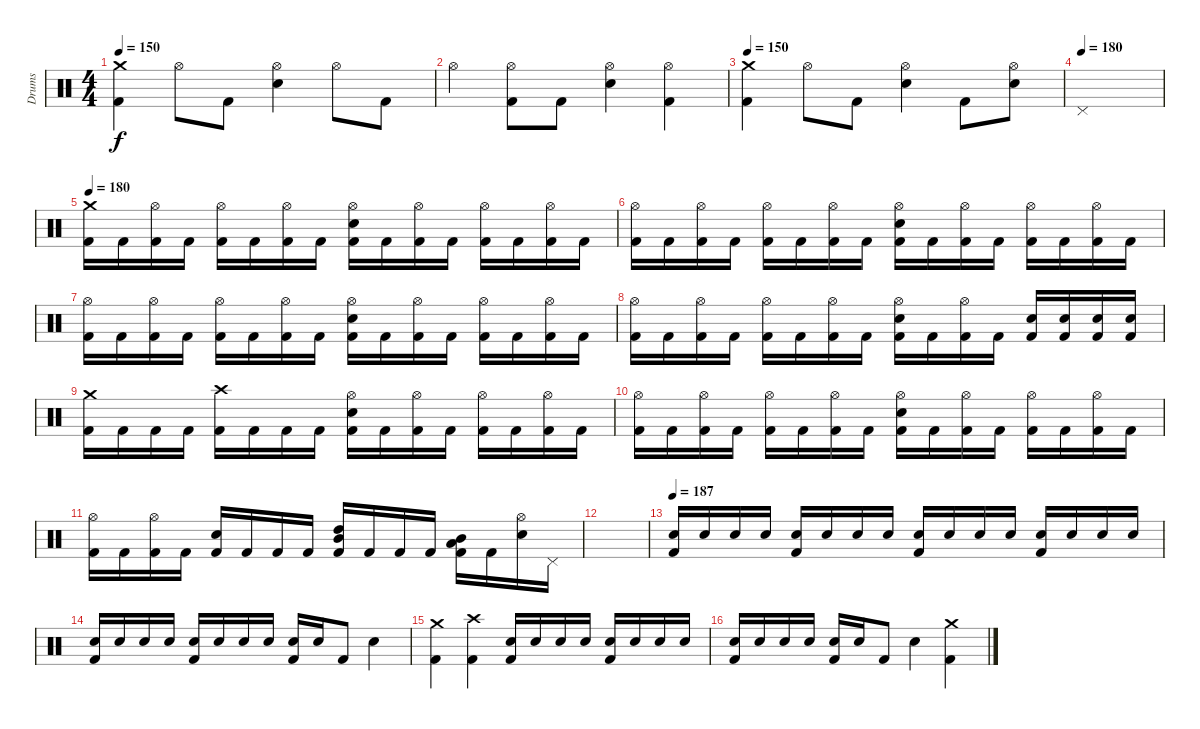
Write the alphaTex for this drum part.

\track ("Drums" "Drums") {instrument percussion}
\staff {score}
\articulation defaults
\ts (4 4)
\tempo 150
\clef neutral
\ks c
("Crash medium (hit)" "Kick (hit) 2").4{dy f} "Hi-Hat (open)".8 "Kick (hit) 2".8 ("Hi-Hat (open)" "Electric Snare (hit)").4 "Hi-Hat (open)".8 "Kick (hit) 2".8 |
"Hi-Hat (open)".4 ("Hi-Hat (open)" "Kick (hit) 2").8 "Kick (hit) 2".8 ("Hi-Hat (open)" "Electric Snare (hit)").4 ("Hi-Hat (open)" "Kick (hit) 2").4 |
\tempo 150
("Crash medium (hit)" "Kick (hit) 2").4 "Hi-Hat (open)".8 "Kick (hit) 2".8 ("Hi-Hat (open)" "Electric Snare (hit)").4 "Kick (hit) 2".8 ("Hi-Hat (open)" "Electric Snare (hit)").8 |
\tempo (180)
"Pedal Hi-Hat (hit)".1 |
\tempo 180
("Crash medium (hit)" "Kick (hit) 2").16 "Kick (hit) 2".16 ("Hi-Hat (open)" "Kick (hit) 2").16 "Kick (hit) 2".16 ("Hi-Hat (open)" "Kick (hit) 2").16 "Kick (hit) 2".16 ("Hi-Hat (open)" "Kick (hit) 2").16 "Kick (hit) 2".16 ("Hi-Hat (open)" "Electric Snare (hit)" "Kick (hit) 2").16 "Kick (hit) 2".16 ("Hi-Hat (open)" "Kick (hit) 2").16 "Kick (hit) 2".16 ("Hi-Hat (open)" "Kick (hit) 2").16 "Kick (hit) 2".16 ("Hi-Hat (open)" "Kick (hit) 2").16 "Kick (hit) 2".16 |
("Hi-Hat (open)" "Kick (hit) 2").16 "Kick (hit) 2".16 ("Hi-Hat (open)" "Kick (hit) 2").16 "Kick (hit) 2".16 ("Hi-Hat (open)" "Kick (hit) 2").16 "Kick (hit) 2".16 ("Hi-Hat (open)" "Kick (hit) 2").16 "Kick (hit) 2".16 ("Hi-Hat (open)" "Electric Snare (hit)" "Kick (hit) 2").16 "Kick (hit) 2".16 ("Hi-Hat (open)" "Kick (hit) 2").16 "Kick (hit) 2".16 ("Hi-Hat (open)" "Kick (hit) 2").16 "Kick (hit) 2".16 ("Hi-Hat (open)" "Kick (hit) 2").16 "Kick (hit) 2".16 |
("Hi-Hat (open)" "Kick (hit) 2").16 "Kick (hit) 2".16 ("Hi-Hat (open)" "Kick (hit) 2").16 "Kick (hit) 2".16 ("Hi-Hat (open)" "Kick (hit) 2").16 "Kick (hit) 2".16 ("Hi-Hat (open)" "Kick (hit) 2").16 "Kick (hit) 2".16 ("Hi-Hat (open)" "Electric Snare (hit)" "Kick (hit) 2").16 "Kick (hit) 2".16 ("Hi-Hat (open)" "Kick (hit) 2").16 "Kick (hit) 2".16 ("Hi-Hat (open)" "Kick (hit) 2").16 "Kick (hit) 2".16 ("Hi-Hat (open)" "Kick (hit) 2").16 "Kick (hit) 2".16 |
("Hi-Hat (open)" "Kick (hit) 2").16 "Kick (hit) 2".16 ("Hi-Hat (open)" "Kick (hit) 2").16 "Kick (hit) 2".16 ("Hi-Hat (open)" "Kick (hit) 2").16 "Kick (hit) 2".16 ("Hi-Hat (open)" "Kick (hit) 2").16 "Kick (hit) 2".16 ("Hi-Hat (open)" "Electric Snare (hit)" "Kick (hit) 2").16 "Kick (hit) 2".16 ("Hi-Hat (open)" "Kick (hit) 2").16 "Kick (hit) 2".16 ("Electric Snare (hit)" "Kick (hit) 2").16 ("Electric Snare (hit)" "Kick (hit) 2").16 ("Electric Snare (hit)" "Kick (hit) 2").16 ("Electric Snare (hit)" "Kick (hit) 2").16 |
("Crash medium (hit)" "Kick (hit) 2").16 "Kick (hit) 2".16 "Kick (hit) 2".16 "Kick (hit) 2".16 ("Crash high (hit)" "Kick (hit) 2").16 "Kick (hit) 2".16 "Kick (hit) 2".16 "Kick (hit) 2".16 ("Hi-Hat (open)" "Electric Snare (hit)" "Kick (hit) 2").16 "Kick (hit) 2".16 ("Hi-Hat (open)" "Kick (hit) 2").16 "Kick (hit) 2".16 ("Hi-Hat (open)" "Kick (hit) 2").16 "Kick (hit) 2".16 ("Hi-Hat (open)" "Kick (hit) 2").16 "Kick (hit) 2".16 |
("Hi-Hat (open)" "Kick (hit) 2").16 "Kick (hit) 2".16 ("Hi-Hat (open)" "Kick (hit) 2").16 "Kick (hit) 2".16 ("Hi-Hat (open)" "Kick (hit) 2").16 "Kick (hit) 2".16 ("Hi-Hat (open)" "Kick (hit) 2").16 "Kick (hit) 2".16 ("Hi-Hat (open)" "Electric Snare (hit)" "Kick (hit) 2").16 "Kick (hit) 2".16 ("Hi-Hat (open)" "Kick (hit) 2").16 "Kick (hit) 2".16 ("Hi-Hat (open)" "Kick (hit) 2").16 "Kick (hit) 2".16 ("Hi-Hat (open)" "Kick (hit) 2").16 "Kick (hit) 2".16 |
("Hi-Hat (open)" "Kick (hit) 2").16 "Kick (hit) 2".16 ("Hi-Hat (open)" "Kick (hit) 2").16 "Kick (hit) 2".16 ("Electric Snare (hit)" "Kick (hit) 2").16 "Kick (hit) 2".16 "Kick (hit) 2".16 "Kick (hit) 2".16 ("High Tom (hit)" "Mid Tom (hit)" "Kick (hit) 2").16 "Kick (hit) 2".16 "Kick (hit) 2".16 "Kick (hit) 2".16 ("Mid Tom (hit)" "Low Tom (hit)" "Kick (hit) 2").16 "Kick (hit) 2".16 ("Hi-Hat (open)" "Electric Snare (hit)").16 "Pedal Hi-Hat (hit)".16 |
|
\tempo 187
("Electric Snare (hit)" "Kick (hit) 2").16 "Electric Snare (hit)".16 "Electric Snare (hit)".16 "Electric Snare (hit)".16 ("Electric Snare (hit)" "Kick (hit) 2").16 "Electric Snare (hit)".16 "Electric Snare (hit)".16 "Electric Snare (hit)".16 ("Electric Snare (hit)" "Kick (hit) 2").16 "Electric Snare (hit)".16 "Electric Snare (hit)".16 "Electric Snare (hit)".16 ("Electric Snare (hit)" "Kick (hit) 2").16 "Electric Snare (hit)".16 "Electric Snare (hit)".16 "Electric Snare (hit)".16 |
("Electric Snare (hit)" "Kick (hit) 2").16 "Electric Snare (hit)".16 "Electric Snare (hit)".16 "Electric Snare (hit)".16 ("Electric Snare (hit)" "Kick (hit) 2").16 "Electric Snare (hit)".16 "Electric Snare (hit)".16 "Electric Snare (hit)".16 ("Electric Snare (hit)" "Kick (hit) 2").16 "Electric Snare (hit)".16 "Kick (hit) 2".8 "Electric Snare (hit)".4 |
("Crash medium (hit)" "Kick (hit) 2").4 ("Crash high (hit)" "Kick (hit) 2").4 ("Electric Snare (hit)" "Kick (hit) 2").16 "Electric Snare (hit)".16 "Electric Snare (hit)".16 "Electric Snare (hit)".16 ("Electric Snare (hit)" "Kick (hit) 2").16 "Electric Snare (hit)".16 "Electric Snare (hit)".16 "Electric Snare (hit)".16 |
("Electric Snare (hit)" "Kick (hit) 2").16 "Electric Snare (hit)".16 "Electric Snare (hit)".16 "Electric Snare (hit)".16 ("Electric Snare (hit)" "Kick (hit) 2").16 "Electric Snare (hit)".16 "Kick (hit) 2".8 "Electric Snare (hit)".4 ("Crash medium (hit)" "Kick (hit) 2").4
